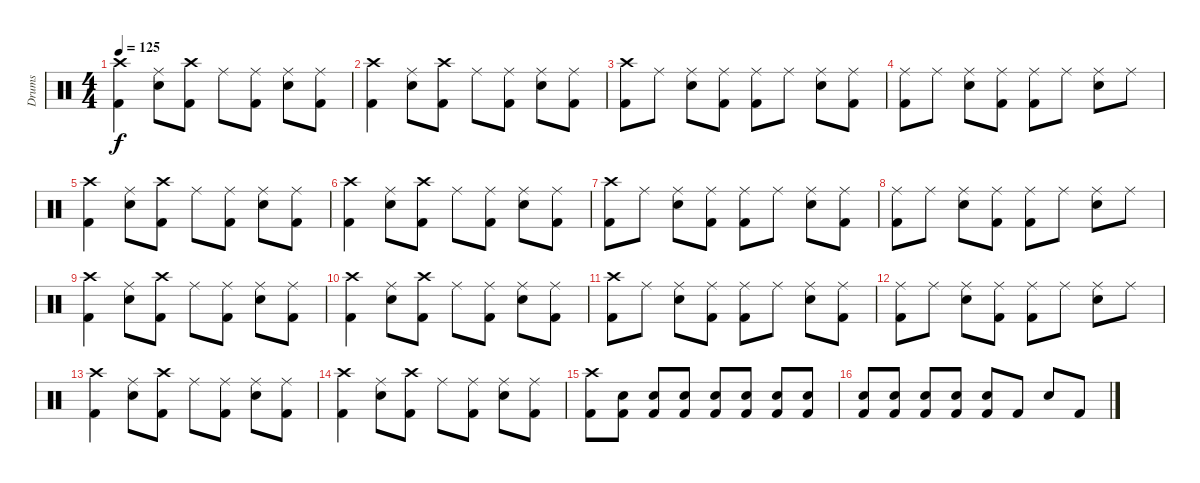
\track ("Drums" "Drums") {instrument percussion}
\staff {score}
\articulation defaults
\ts (4 4)
\tempo 125
\clef neutral
\ks c
("Crash high (hit)" "Kick (hit) 2").4{dy f} ("Ride (middle)" "Snare (hit) 2").8 ("Crash high (hit)" "Kick (hit) 2").8 "Ride (middle)".8 ("Ride (middle)" "Kick (hit) 2").8 ("Ride (middle)" "Snare (hit) 2").8 ("Ride (middle)" "Kick (hit) 2").8 |
("Crash high (hit)" "Kick (hit) 2").4 ("Ride (middle)" "Snare (hit) 2").8 ("Crash high (hit)" "Kick (hit) 2").8 "Ride (middle)".8 ("Ride (middle)" "Kick (hit) 2").8 ("Ride (middle)" "Snare (hit) 2").8 ("Ride (middle)" "Kick (hit) 2").8 |
("Crash high (hit)" "Kick (hit) 2").8 "Ride (middle)".8 ("Ride (middle)" "Snare (hit) 2").8 ("Ride (middle)" "Kick (hit) 2").8 ("Ride (middle)" "Kick (hit) 2").8 "Ride (middle)".8 ("Ride (middle)" "Snare (hit) 2").8 ("Ride (middle)" "Kick (hit) 2").8 |
("Ride (middle)" "Kick (hit) 2").8 "Ride (middle)".8 ("Ride (middle)" "Snare (hit) 2").8 ("Ride (middle)" "Kick (hit) 2").8 ("Ride (middle)" "Kick (hit) 2").8 "Ride (middle)".8 ("Ride (middle)" "Snare (hit) 2").8 "Ride (middle)".8 |
("Crash high (hit)" "Kick (hit) 2").4 ("Ride (middle)" "Snare (hit) 2").8 ("Crash high (hit)" "Kick (hit) 2").8 "Ride (middle)".8 ("Ride (middle)" "Kick (hit) 2").8 ("Ride (middle)" "Snare (hit) 2").8 ("Ride (middle)" "Kick (hit) 2").8 |
("Crash high (hit)" "Kick (hit) 2").4 ("Ride (middle)" "Snare (hit) 2").8 ("Crash high (hit)" "Kick (hit) 2").8 "Ride (middle)".8 ("Ride (middle)" "Kick (hit) 2").8 ("Ride (middle)" "Snare (hit) 2").8 ("Ride (middle)" "Kick (hit) 2").8 |
("Crash high (hit)" "Kick (hit) 2").8 "Ride (middle)".8 ("Ride (middle)" "Snare (hit) 2").8 ("Ride (middle)" "Kick (hit) 2").8 ("Ride (middle)" "Kick (hit) 2").8 "Ride (middle)".8 ("Ride (middle)" "Snare (hit) 2").8 ("Ride (middle)" "Kick (hit) 2").8 |
("Ride (middle)" "Kick (hit) 2").8 "Ride (middle)".8 ("Ride (middle)" "Snare (hit) 2").8 ("Ride (middle)" "Kick (hit) 2").8 ("Ride (middle)" "Kick (hit) 2").8 "Ride (middle)".8 ("Ride (middle)" "Snare (hit) 2").8 "Ride (middle)".8 |
("Crash high (hit)" "Kick (hit) 2").4 ("Ride (middle)" "Snare (hit) 2").8 ("Crash high (hit)" "Kick (hit) 2").8 "Ride (middle)".8 ("Ride (middle)" "Kick (hit) 2").8 ("Ride (middle)" "Snare (hit) 2").8 ("Ride (middle)" "Kick (hit) 2").8 |
("Crash high (hit)" "Kick (hit) 2").4 ("Ride (middle)" "Snare (hit) 2").8 ("Crash high (hit)" "Kick (hit) 2").8 "Ride (middle)".8 ("Ride (middle)" "Kick (hit) 2").8 ("Ride (middle)" "Snare (hit) 2").8 ("Ride (middle)" "Kick (hit) 2").8 |
("Crash high (hit)" "Kick (hit) 2").8 "Ride (middle)".8 ("Ride (middle)" "Snare (hit) 2").8 ("Ride (middle)" "Kick (hit) 2").8 ("Ride (middle)" "Kick (hit) 2").8 "Ride (middle)".8 ("Ride (middle)" "Snare (hit) 2").8 ("Ride (middle)" "Kick (hit) 2").8 |
("Ride (middle)" "Kick (hit) 2").8 "Ride (middle)".8 ("Ride (middle)" "Snare (hit) 2").8 ("Ride (middle)" "Kick (hit) 2").8 ("Ride (middle)" "Kick (hit) 2").8 "Ride (middle)".8 ("Ride (middle)" "Snare (hit) 2").8 "Ride (middle)".8 |
("Crash high (hit)" "Kick (hit) 2").4 ("Ride (middle)" "Snare (hit) 2").8 ("Crash high (hit)" "Kick (hit) 2").8 "Ride (middle)".8 ("Ride (middle)" "Kick (hit) 2").8 ("Ride (middle)" "Snare (hit) 2").8 ("Ride (middle)" "Kick (hit) 2").8 |
("Crash high (hit)" "Kick (hit) 2").4 ("Ride (middle)" "Snare (hit) 2").8 ("Crash high (hit)" "Kick (hit) 2").8 "Ride (middle)".8 ("Ride (middle)" "Kick (hit) 2").8 ("Ride (middle)" "Snare (hit) 2").8 ("Ride (middle)" "Kick (hit) 2").8 |
("Crash high (hit)" "Kick (hit) 2").8 ("Snare (hit) 2" "Kick (hit) 2").8 ("Snare (hit) 2" "Kick (hit) 2").8 ("Snare (hit) 2" "Kick (hit) 2").8 ("Snare (hit) 2" "Kick (hit) 2").8 ("Snare (hit) 2" "Kick (hit) 2").8 ("Snare (hit) 2" "Kick (hit) 2").8 ("Snare (hit) 2" "Kick (hit) 2").8 |
("Snare (hit) 2" "Kick (hit) 2").8 ("Snare (hit) 2" "Kick (hit) 2").8 ("Snare (hit) 2" "Kick (hit) 2").8 ("Snare (hit) 2" "Kick (hit) 2").8 ("Snare (hit) 2" "Kick (hit) 2").8 "Kick (hit) 2".8 "Snare (hit) 2".8 "Kick (hit) 2".8
